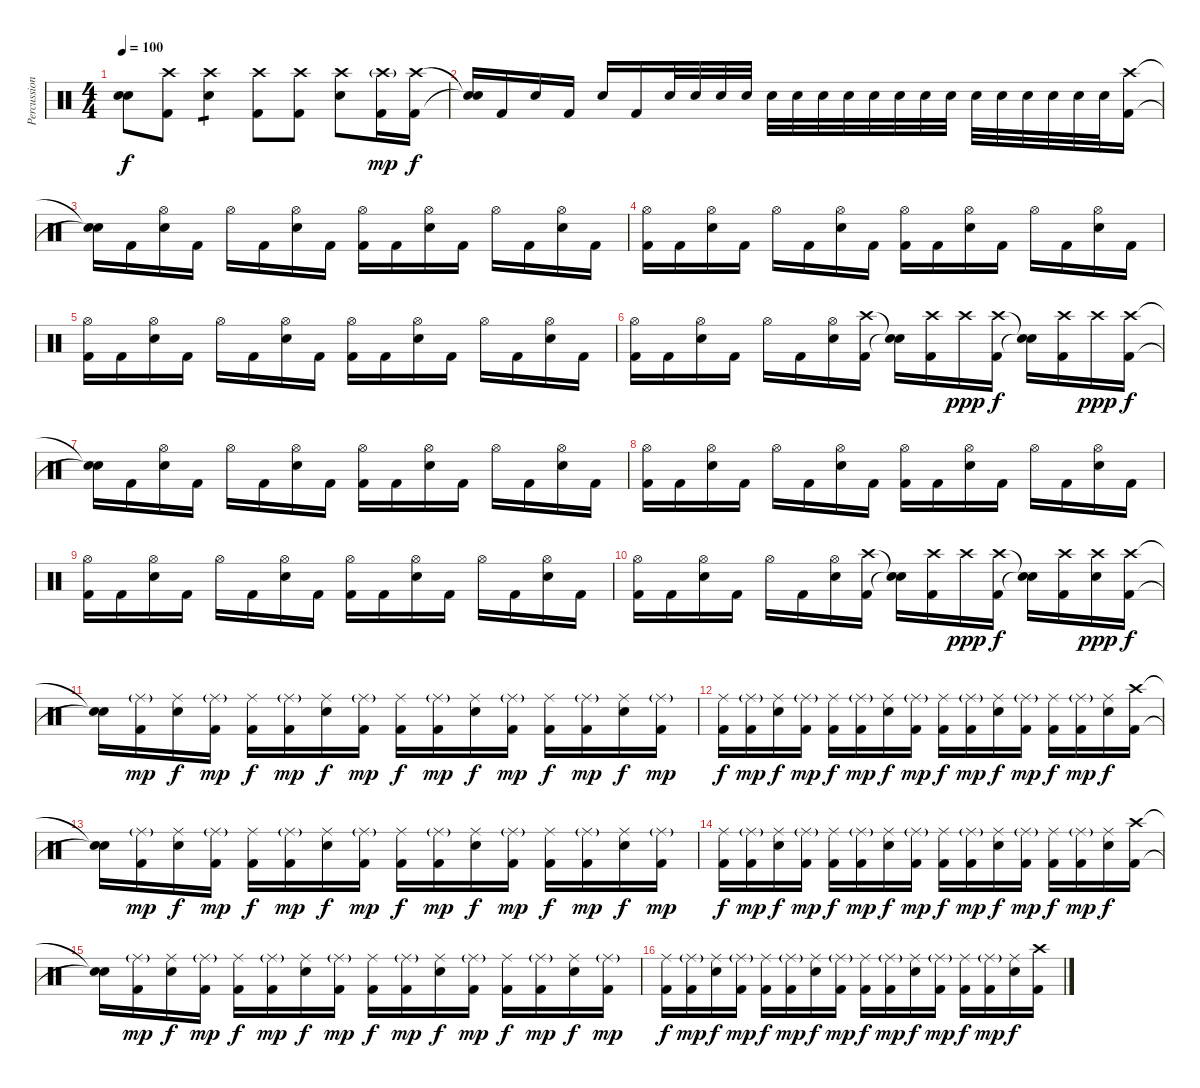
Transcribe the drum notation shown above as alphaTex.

\track ("Percussion" "Percussion") {instrument percussion}
\staff {score}
\articulation defaults
\ts (4 4)
\tempo 100
\clef neutral
\ks c
("Snare (hit)"{t} "Snare (hit)"{t}).8{dy f} ("Crash high (hit)" "Kick (hit) 2").8 ("Crash high (hit)" "Electric Snare (hit)").4{tp 1} ("Crash high (hit)" "Kick (hit) 2").8 ("Crash high (hit)" "Kick (hit) 2").8 ("Crash high (hit)" "Electric Snare (hit)").8 ("Crash high (hit)"{g} "Kick (hit) 2").16{dy mp} ("Crash high (hit)" "Kick (hit) 2").16{dy f} |
("Snare (hit)"{t} "Snare (hit)"{t}).16 "Kick (hit) 2".16 "Electric Snare (hit)".16 "Kick (hit) 2".16 "Electric Snare (hit)".16 "Kick (hit) 2".16 "Electric Snare (hit)".32 "Electric Snare (hit)".32 "Electric Snare (hit)".32 "Electric Snare (hit)".32 "Electric Snare (hit)".32 "Electric Snare (hit)".32 "Electric Snare (hit)".32 "Electric Snare (hit)".32 "Electric Snare (hit)".32 "Electric Snare (hit)".32 "Electric Snare (hit)".32 "Electric Snare (hit)".32 "Electric Snare (hit)".32 "Electric Snare (hit)".32 "Electric Snare (hit)".32 "Electric Snare (hit)".32 "Electric Snare (hit)".32 "Electric Snare (hit)".32 ("Crash high (hit)" "Kick (hit) 2").16 |
("Snare (hit)"{t} "Snare (hit)"{t}).16 "Kick (hit) 2".16 ("Hi-Hat (open)" "Electric Snare (hit)").16 "Kick (hit) 2".16 "Hi-Hat (open)".16 "Kick (hit) 2".16 ("Hi-Hat (open)" "Electric Snare (hit)").16 "Kick (hit) 2".16 ("Hi-Hat (open)" "Kick (hit) 2").16 "Kick (hit) 2".16 ("Hi-Hat (open)" "Electric Snare (hit)").16 "Kick (hit) 2".16 "Hi-Hat (open)".16 "Kick (hit) 2".16 ("Hi-Hat (open)" "Electric Snare (hit)").16 "Kick (hit) 2".16 |
("Hi-Hat (open)" "Kick (hit) 2").16 "Kick (hit) 2".16 ("Hi-Hat (open)" "Electric Snare (hit)").16 "Kick (hit) 2".16 "Hi-Hat (open)".16 "Kick (hit) 2".16 ("Hi-Hat (open)" "Electric Snare (hit)").16 "Kick (hit) 2".16 ("Hi-Hat (open)" "Kick (hit) 2").16 "Kick (hit) 2".16 ("Hi-Hat (open)" "Electric Snare (hit)").16 "Kick (hit) 2".16 "Hi-Hat (open)".16 "Kick (hit) 2".16 ("Hi-Hat (open)" "Electric Snare (hit)").16 "Kick (hit) 2".16 |
("Hi-Hat (open)" "Kick (hit) 2").16 "Kick (hit) 2".16 ("Hi-Hat (open)" "Electric Snare (hit)").16 "Kick (hit) 2".16 "Hi-Hat (open)".16 "Kick (hit) 2".16 ("Hi-Hat (open)" "Electric Snare (hit)").16 "Kick (hit) 2".16 ("Hi-Hat (open)" "Kick (hit) 2").16 "Kick (hit) 2".16 ("Hi-Hat (open)" "Electric Snare (hit)").16 "Kick (hit) 2".16 "Hi-Hat (open)".16 "Kick (hit) 2".16 ("Hi-Hat (open)" "Electric Snare (hit)").16 "Kick (hit) 2".16 |
("Hi-Hat (open)" "Kick (hit) 2").16 "Kick (hit) 2".16 ("Hi-Hat (open)" "Electric Snare (hit)").16 "Kick (hit) 2".16 "Hi-Hat (open)".16 "Kick (hit) 2".16 ("Hi-Hat (open)" "Electric Snare (hit)").16 ("Crash high (hit)" "Kick (hit) 2").16 ("Snare (hit)"{t} "Snare (hit)"{t}).16 ("Crash high (hit)" "Kick (hit) 2").16 "Crash high (hit)".16{dy ppp} ("Crash high (hit)" "Kick (hit) 2").16{dy f} ("Snare (hit)"{t} "Snare (hit)"{t}).16 ("Crash high (hit)" "Kick (hit) 2").16 "Crash high (hit)".16{dy ppp} ("Crash high (hit)" "Kick (hit) 2").16{dy f} |
("Snare (hit)"{t} "Snare (hit)"{t}).16 "Kick (hit) 2".16 ("Hi-Hat (open)" "Electric Snare (hit)").16 "Kick (hit) 2".16 "Hi-Hat (open)".16 "Kick (hit) 2".16 ("Hi-Hat (open)" "Electric Snare (hit)").16 "Kick (hit) 2".16 ("Hi-Hat (open)" "Kick (hit) 2").16 "Kick (hit) 2".16 ("Hi-Hat (open)" "Electric Snare (hit)").16 "Kick (hit) 2".16 "Hi-Hat (open)".16 "Kick (hit) 2".16 ("Hi-Hat (open)" "Electric Snare (hit)").16 "Kick (hit) 2".16 |
("Hi-Hat (open)" "Kick (hit) 2").16 "Kick (hit) 2".16 ("Hi-Hat (open)" "Electric Snare (hit)").16 "Kick (hit) 2".16 "Hi-Hat (open)".16 "Kick (hit) 2".16 ("Hi-Hat (open)" "Electric Snare (hit)").16 "Kick (hit) 2".16 ("Hi-Hat (open)" "Kick (hit) 2").16 "Kick (hit) 2".16 ("Hi-Hat (open)" "Electric Snare (hit)").16 "Kick (hit) 2".16 "Hi-Hat (open)".16 "Kick (hit) 2".16 ("Hi-Hat (open)" "Electric Snare (hit)").16 "Kick (hit) 2".16 |
("Hi-Hat (open)" "Kick (hit) 2").16 "Kick (hit) 2".16 ("Hi-Hat (open)" "Electric Snare (hit)").16 "Kick (hit) 2".16 "Hi-Hat (open)".16 "Kick (hit) 2".16 ("Hi-Hat (open)" "Electric Snare (hit)").16 "Kick (hit) 2".16 ("Hi-Hat (open)" "Kick (hit) 2").16 "Kick (hit) 2".16 ("Hi-Hat (open)" "Electric Snare (hit)").16 "Kick (hit) 2".16 "Hi-Hat (open)".16 "Kick (hit) 2".16 ("Hi-Hat (open)" "Electric Snare (hit)").16 "Kick (hit) 2".16 |
("Hi-Hat (open)" "Kick (hit) 2").16 "Kick (hit) 2".16 ("Hi-Hat (open)" "Electric Snare (hit)").16 "Kick (hit) 2".16 "Hi-Hat (open)".16 "Kick (hit) 2".16 ("Hi-Hat (open)" "Electric Snare (hit)").16 ("Crash high (hit)" "Kick (hit) 2").16 ("Snare (hit)"{t} "Snare (hit)"{t}).16 ("Crash high (hit)" "Kick (hit) 2").16 "Crash high (hit)".16{dy ppp} ("Crash high (hit)" "Kick (hit) 2").16{dy f} ("Snare (hit)"{t} "Snare (hit)"{t}).16 ("Crash high (hit)" "Kick (hit) 2").16 ("Crash high (hit)" "Electric Snare (hit)").16{dy ppp} ("Crash high (hit)" "Kick (hit) 2").16{dy f} |
("Snare (hit)"{t} "Snare (hit)"{t}).16 ("Ride (middle)"{g} "Kick (hit) 2").16{dy mp} ("Ride (middle)" "Electric Snare (hit)").16{dy f} ("Ride (middle)"{g} "Kick (hit) 2").16{dy mp} ("Ride (middle)" "Kick (hit) 2").16{dy f} ("Ride (middle)"{g} "Kick (hit) 2").16{dy mp} ("Ride (middle)" "Electric Snare (hit)").16{dy f} ("Ride (middle)"{g} "Kick (hit) 2").16{dy mp} ("Ride (middle)" "Kick (hit) 2").16{dy f} ("Ride (middle)"{g} "Kick (hit) 2").16{dy mp} ("Ride (middle)" "Electric Snare (hit)").16{dy f} ("Ride (middle)"{g} "Kick (hit) 2").16{dy mp} ("Ride (middle)" "Kick (hit) 2").16{dy f} ("Ride (middle)"{g} "Kick (hit) 2").16{dy mp} ("Ride (middle)" "Electric Snare (hit)").16{dy f} ("Ride (middle)"{g} "Kick (hit) 2").16{dy mp} |
("Ride (middle)" "Kick (hit) 2").16{dy f} ("Ride (middle)"{g} "Kick (hit) 2").16{dy mp} ("Ride (middle)" "Electric Snare (hit)").16{dy f} ("Ride (middle)"{g} "Kick (hit) 2").16{dy mp} ("Ride (middle)" "Kick (hit) 2").16{dy f} ("Ride (middle)"{g} "Kick (hit) 2").16{dy mp} ("Ride (middle)" "Electric Snare (hit)").16{dy f} ("Ride (middle)"{g} "Kick (hit) 2").16{dy mp} ("Ride (middle)" "Kick (hit) 2").16{dy f} ("Ride (middle)"{g} "Kick (hit) 2").16{dy mp} ("Ride (middle)" "Electric Snare (hit)").16{dy f} ("Ride (middle)"{g} "Kick (hit) 2").16{dy mp} ("Ride (middle)" "Kick (hit) 2").16{dy f} ("Ride (middle)"{g} "Kick (hit) 2").16{dy mp} ("Ride (middle)" "Electric Snare (hit)").16{dy f} ("Crash high (hit)" "Kick (hit) 2").16 |
("Snare (hit)"{t} "Snare (hit)"{t}).16 ("Ride (middle)"{g} "Kick (hit) 2").16{dy mp} ("Ride (middle)" "Electric Snare (hit)").16{dy f} ("Ride (middle)"{g} "Kick (hit) 2").16{dy mp} ("Ride (middle)" "Kick (hit) 2").16{dy f} ("Ride (middle)"{g} "Kick (hit) 2").16{dy mp} ("Ride (middle)" "Electric Snare (hit)").16{dy f} ("Ride (middle)"{g} "Kick (hit) 2").16{dy mp} ("Ride (middle)" "Kick (hit) 2").16{dy f} ("Ride (middle)"{g} "Kick (hit) 2").16{dy mp} ("Ride (middle)" "Electric Snare (hit)").16{dy f} ("Ride (middle)"{g} "Kick (hit) 2").16{dy mp} ("Ride (middle)" "Kick (hit) 2").16{dy f} ("Ride (middle)"{g} "Kick (hit) 2").16{dy mp} ("Ride (middle)" "Electric Snare (hit)").16{dy f} ("Ride (middle)"{g} "Kick (hit) 2").16{dy mp} |
("Ride (middle)" "Kick (hit) 2").16{dy f} ("Ride (middle)"{g} "Kick (hit) 2").16{dy mp} ("Ride (middle)" "Electric Snare (hit)").16{dy f} ("Ride (middle)"{g} "Kick (hit) 2").16{dy mp} ("Ride (middle)" "Kick (hit) 2").16{dy f} ("Ride (middle)"{g} "Kick (hit) 2").16{dy mp} ("Ride (middle)" "Electric Snare (hit)").16{dy f} ("Ride (middle)"{g} "Kick (hit) 2").16{dy mp} ("Ride (middle)" "Kick (hit) 2").16{dy f} ("Ride (middle)"{g} "Kick (hit) 2").16{dy mp} ("Ride (middle)" "Electric Snare (hit)").16{dy f} ("Ride (middle)"{g} "Kick (hit) 2").16{dy mp} ("Ride (middle)" "Kick (hit) 2").16{dy f} ("Ride (middle)"{g} "Kick (hit) 2").16{dy mp} ("Ride (middle)" "Electric Snare (hit)").16{dy f} ("Crash high (hit)" "Kick (hit) 2").16 |
("Snare (hit)"{t} "Snare (hit)"{t}).16 ("Ride (middle)"{g} "Kick (hit) 2").16{dy mp} ("Ride (middle)" "Electric Snare (hit)").16{dy f} ("Ride (middle)"{g} "Kick (hit) 2").16{dy mp} ("Ride (middle)" "Kick (hit) 2").16{dy f} ("Ride (middle)"{g} "Kick (hit) 2").16{dy mp} ("Ride (middle)" "Electric Snare (hit)").16{dy f} ("Ride (middle)"{g} "Kick (hit) 2").16{dy mp} ("Ride (middle)" "Kick (hit) 2").16{dy f} ("Ride (middle)"{g} "Kick (hit) 2").16{dy mp} ("Ride (middle)" "Electric Snare (hit)").16{dy f} ("Ride (middle)"{g} "Kick (hit) 2").16{dy mp} ("Ride (middle)" "Kick (hit) 2").16{dy f} ("Ride (middle)"{g} "Kick (hit) 2").16{dy mp} ("Ride (middle)" "Electric Snare (hit)").16{dy f} ("Ride (middle)"{g} "Kick (hit) 2").16{dy mp} |
("Ride (middle)" "Kick (hit) 2").16{dy f} ("Ride (middle)"{g} "Kick (hit) 2").16{dy mp} ("Ride (middle)" "Electric Snare (hit)").16{dy f} ("Ride (middle)"{g} "Kick (hit) 2").16{dy mp} ("Ride (middle)" "Kick (hit) 2").16{dy f} ("Ride (middle)"{g} "Kick (hit) 2").16{dy mp} ("Ride (middle)" "Electric Snare (hit)").16{dy f} ("Ride (middle)"{g} "Kick (hit) 2").16{dy mp} ("Ride (middle)" "Kick (hit) 2").16{dy f} ("Ride (middle)"{g} "Kick (hit) 2").16{dy mp} ("Ride (middle)" "Electric Snare (hit)").16{dy f} ("Ride (middle)"{g} "Kick (hit) 2").16{dy mp} ("Ride (middle)" "Kick (hit) 2").16{dy f} ("Ride (middle)"{g} "Kick (hit) 2").16{dy mp} ("Ride (middle)" "Electric Snare (hit)").16{dy f} ("Crash high (hit)" "Kick (hit) 2").16
